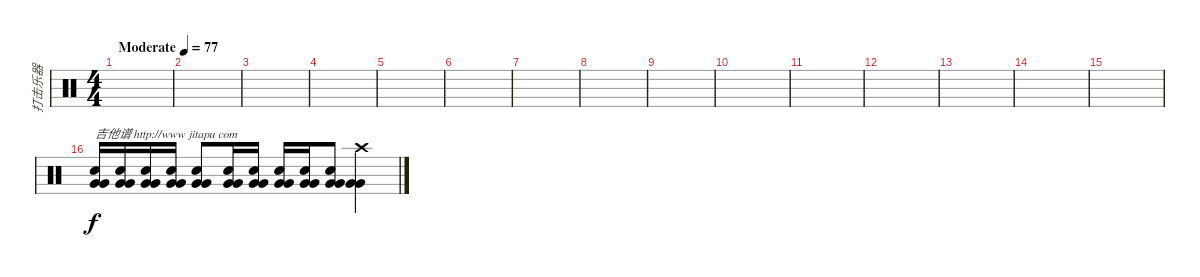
\track ("打击乐器" "打击乐器") {instrument percussion}
\staff {score}
\articulation defaults
\ts (4 4)
\tempo (77 "Moderate")
\clef neutral
\ks c
|
|
|
|
|
|
|
|
|
|
|
|
|
|
|
("Electric Snare (hit)" "Very Low Tom (hit)" "Very Low Tom (hit)").16{txt "吉他谱 http://www jitapu com"} ("Electric Snare (hit)" "Very Low Tom (hit)" "Very Low Tom (hit)").16 ("Electric Snare (hit)" "Very Low Tom (hit)" "Very Low Tom (hit)").16 ("Electric Snare (hit)" "Very Low Tom (hit)" "Very Low Tom (hit)").16 ("Electric Snare (hit)" "Very Low Tom (hit)" "Very Low Tom (hit)").8 ("Electric Snare (hit)" "Very Low Tom (hit)" "Very Low Tom (hit)").16 ("Electric Snare (hit)" "Very Low Tom (hit)" "Very Low Tom (hit)").16 ("Electric Snare (hit)" "Very Low Tom (hit)" "Very Low Tom (hit)").16 ("Electric Snare (hit)" "Very Low Tom (hit)" "Very Low Tom (hit)").16 ("Electric Snare (hit)" "Very Low Tom (hit)" "Very Low Tom (hit)").8 ("Crash high (hit)" "Very Low Tom (hit)" "Very Low Tom (hit)").4
